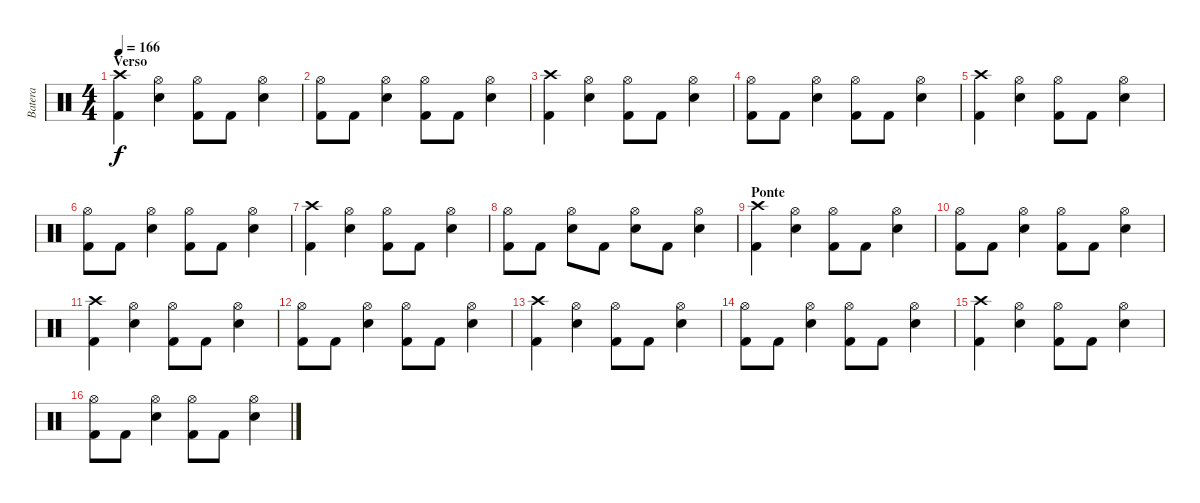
\track ("Batera" "Batera") {instrument percussion}
\staff {score}
\articulation defaults
\ts (4 4)
\section ("" "Verso")
\tempo 166
\clef neutral
\ks c
("Crash high (hit)" "Kick (hit) 2").4{dy f} ("Hi-Hat (open)" "Snare (hit) 2").4 ("Hi-Hat (open)" "Kick (hit) 2").8 "Kick (hit) 2".8 ("Hi-Hat (open)" "Snare (hit) 2").4 |
("Hi-Hat (open)" "Kick (hit) 2").8 "Kick (hit) 2".8 ("Hi-Hat (open)" "Snare (hit) 2").4 ("Hi-Hat (open)" "Kick (hit) 2").8 "Kick (hit) 2".8 ("Hi-Hat (open)" "Snare (hit) 2").4 |
("Crash high (hit)" "Kick (hit) 2").4 ("Hi-Hat (open)" "Snare (hit) 2").4 ("Hi-Hat (open)" "Kick (hit) 2").8 "Kick (hit) 2".8 ("Hi-Hat (open)" "Snare (hit) 2").4 |
("Hi-Hat (open)" "Kick (hit) 2").8 "Kick (hit) 2".8 ("Hi-Hat (open)" "Snare (hit) 2").4 ("Hi-Hat (open)" "Kick (hit) 2").8 "Kick (hit) 2".8 ("Hi-Hat (open)" "Snare (hit) 2").4 |
("Crash high (hit)" "Kick (hit) 2").4 ("Hi-Hat (open)" "Snare (hit) 2").4 ("Hi-Hat (open)" "Kick (hit) 2").8 "Kick (hit) 2".8 ("Hi-Hat (open)" "Snare (hit) 2").4 |
("Hi-Hat (open)" "Kick (hit) 2").8 "Kick (hit) 2".8 ("Hi-Hat (open)" "Snare (hit) 2").4 ("Hi-Hat (open)" "Kick (hit) 2").8 "Kick (hit) 2".8 ("Hi-Hat (open)" "Snare (hit) 2").4 |
("Crash high (hit)" "Kick (hit) 2").4 ("Hi-Hat (open)" "Snare (hit) 2").4 ("Hi-Hat (open)" "Kick (hit) 2").8 "Kick (hit) 2".8 ("Hi-Hat (open)" "Snare (hit) 2").4 |
("Hi-Hat (open)" "Kick (hit) 2").8 "Kick (hit) 2".8 ("Hi-Hat (open)" "Snare (hit) 2").8 "Kick (hit) 2".8 ("Hi-Hat (open)" "Snare (hit) 2").8 "Kick (hit) 2".8 ("Hi-Hat (open)" "Snare (hit) 2").4 |
\section ("" "Ponte")
("Crash high (hit)" "Kick (hit) 2").4 ("Hi-Hat (open)" "Snare (hit) 2").4 ("Hi-Hat (open)" "Kick (hit) 2").8 "Kick (hit) 2".8 ("Hi-Hat (open)" "Snare (hit) 2").4 |
("Hi-Hat (open)" "Kick (hit) 2").8 "Kick (hit) 2".8 ("Hi-Hat (open)" "Snare (hit) 2").4 ("Hi-Hat (open)" "Kick (hit) 2").8 "Kick (hit) 2".8 ("Hi-Hat (open)" "Snare (hit) 2").4 |
("Crash high (hit)" "Kick (hit) 2").4 ("Hi-Hat (open)" "Snare (hit) 2").4 ("Hi-Hat (open)" "Kick (hit) 2").8 "Kick (hit) 2".8 ("Hi-Hat (open)" "Snare (hit) 2").4 |
("Hi-Hat (open)" "Kick (hit) 2").8 "Kick (hit) 2".8 ("Hi-Hat (open)" "Snare (hit) 2").4 ("Hi-Hat (open)" "Kick (hit) 2").8 "Kick (hit) 2".8 ("Hi-Hat (open)" "Snare (hit) 2").4 |
("Crash high (hit)" "Kick (hit) 2").4 ("Hi-Hat (open)" "Snare (hit) 2").4 ("Hi-Hat (open)" "Kick (hit) 2").8 "Kick (hit) 2".8 ("Hi-Hat (open)" "Snare (hit) 2").4 |
("Hi-Hat (open)" "Kick (hit) 2").8 "Kick (hit) 2".8 ("Hi-Hat (open)" "Snare (hit) 2").4 ("Hi-Hat (open)" "Kick (hit) 2").8 "Kick (hit) 2".8 ("Hi-Hat (open)" "Snare (hit) 2").4 |
("Crash high (hit)" "Kick (hit) 2").4 ("Hi-Hat (open)" "Snare (hit) 2").4 ("Hi-Hat (open)" "Kick (hit) 2").8 "Kick (hit) 2".8 ("Hi-Hat (open)" "Snare (hit) 2").4 |
("Hi-Hat (open)" "Kick (hit) 2").8 "Kick (hit) 2".8 ("Hi-Hat (open)" "Snare (hit) 2").4 ("Hi-Hat (open)" "Kick (hit) 2").8 "Kick (hit) 2".8 ("Hi-Hat (open)" "Snare (hit) 2").4
